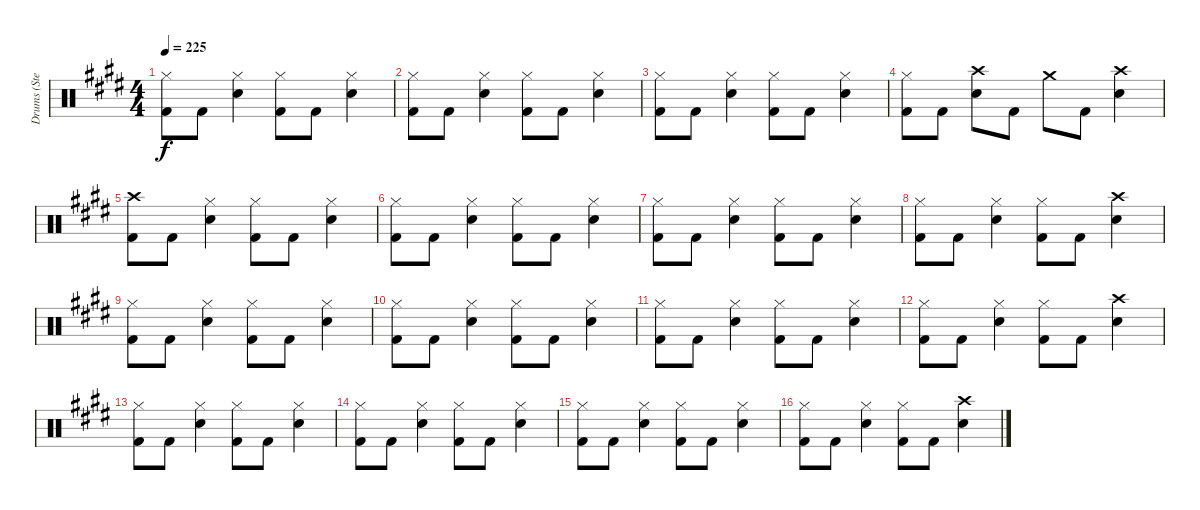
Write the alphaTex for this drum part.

\track ("Drums (Steven)" "Drums (Ste") {instrument percussion}
\staff {score}
\articulation defaults
\ts (4 4)
\tempo 225
\clef neutral
\ks e
("Hi-Hat (closed)" "Kick (hit) 2").8{dy f} "Kick (hit) 2".8 ("Hi-Hat (closed)" "Snare (hit) 2").4 ("Hi-Hat (closed)" "Kick (hit) 2").8 "Kick (hit) 2".8 ("Hi-Hat (closed)" "Snare (hit) 2").4 |
("Hi-Hat (closed)" "Kick (hit) 2").8 "Kick (hit) 2".8 ("Hi-Hat (closed)" "Snare (hit) 2").4 ("Hi-Hat (closed)" "Kick (hit) 2").8 "Kick (hit) 2".8 ("Hi-Hat (closed)" "Snare (hit) 2").4 |
("Hi-Hat (closed)" "Kick (hit) 2").8 "Kick (hit) 2".8 ("Hi-Hat (closed)" "Snare (hit) 2").4 ("Hi-Hat (closed)" "Kick (hit) 2").8 "Kick (hit) 2".8 ("Hi-Hat (closed)" "Snare (hit) 2").4 |
("Hi-Hat (closed)" "Kick (hit) 2").8 "Kick (hit) 2".8 ("Crash high (hit)" "Snare (hit) 2").8 "Kick (hit) 2".8 "Crash medium (hit)".8 "Kick (hit) 2".8 ("Crash high (hit)" "Snare (hit) 2").4 |
("Crash high (hit)" "Kick (hit) 2").8 "Kick (hit) 2".8 ("Hi-Hat (closed)" "Snare (hit) 2").4 ("Hi-Hat (closed)" "Kick (hit) 2").8 "Kick (hit) 2".8 ("Hi-Hat (closed)" "Snare (hit) 2").4 |
("Hi-Hat (closed)" "Kick (hit) 2").8 "Kick (hit) 2".8 ("Hi-Hat (closed)" "Snare (hit) 2").4 ("Hi-Hat (closed)" "Kick (hit) 2").8 "Kick (hit) 2".8 ("Hi-Hat (closed)" "Snare (hit) 2").4 |
("Hi-Hat (closed)" "Kick (hit) 2").8 "Kick (hit) 2".8 ("Hi-Hat (closed)" "Snare (hit) 2").4 ("Hi-Hat (closed)" "Kick (hit) 2").8 "Kick (hit) 2".8 ("Hi-Hat (closed)" "Snare (hit) 2").4 |
("Hi-Hat (closed)" "Kick (hit) 2").8 "Kick (hit) 2".8 ("Hi-Hat (closed)" "Snare (hit) 2").4 ("Hi-Hat (closed)" "Kick (hit) 2").8 "Kick (hit) 2".8 ("Crash high (hit)" "Snare (hit) 2").4 |
("Hi-Hat (closed)" "Kick (hit) 2").8 "Kick (hit) 2".8 ("Hi-Hat (closed)" "Snare (hit) 2").4 ("Hi-Hat (closed)" "Kick (hit) 2").8 "Kick (hit) 2".8 ("Hi-Hat (closed)" "Snare (hit) 2").4 |
("Hi-Hat (closed)" "Kick (hit) 2").8 "Kick (hit) 2".8 ("Hi-Hat (closed)" "Snare (hit) 2").4 ("Hi-Hat (closed)" "Kick (hit) 2").8 "Kick (hit) 2".8 ("Hi-Hat (closed)" "Snare (hit) 2").4 |
("Hi-Hat (closed)" "Kick (hit) 2").8 "Kick (hit) 2".8 ("Hi-Hat (closed)" "Snare (hit) 2").4 ("Hi-Hat (closed)" "Kick (hit) 2").8 "Kick (hit) 2".8 ("Hi-Hat (closed)" "Snare (hit) 2").4 |
("Hi-Hat (closed)" "Kick (hit) 2").8 "Kick (hit) 2".8 ("Hi-Hat (closed)" "Snare (hit) 2").4 ("Hi-Hat (closed)" "Kick (hit) 2").8 "Kick (hit) 2".8 ("Crash high (hit)" "Snare (hit) 2").4 |
("Hi-Hat (closed)" "Kick (hit) 2").8 "Kick (hit) 2".8 ("Hi-Hat (closed)" "Snare (hit) 2").4 ("Hi-Hat (closed)" "Kick (hit) 2").8 "Kick (hit) 2".8 ("Hi-Hat (closed)" "Snare (hit) 2").4 |
("Hi-Hat (closed)" "Kick (hit) 2").8 "Kick (hit) 2".8 ("Hi-Hat (closed)" "Snare (hit) 2").4 ("Hi-Hat (closed)" "Kick (hit) 2").8 "Kick (hit) 2".8 ("Hi-Hat (closed)" "Snare (hit) 2").4 |
("Hi-Hat (closed)" "Kick (hit) 2").8 "Kick (hit) 2".8 ("Hi-Hat (closed)" "Snare (hit) 2").4 ("Hi-Hat (closed)" "Kick (hit) 2").8 "Kick (hit) 2".8 ("Hi-Hat (closed)" "Snare (hit) 2").4 |
("Hi-Hat (closed)" "Kick (hit) 2").8 "Kick (hit) 2".8 ("Hi-Hat (closed)" "Snare (hit) 2").4 ("Hi-Hat (closed)" "Kick (hit) 2").8 "Kick (hit) 2".8 ("Crash high (hit)" "Snare (hit) 2").4
